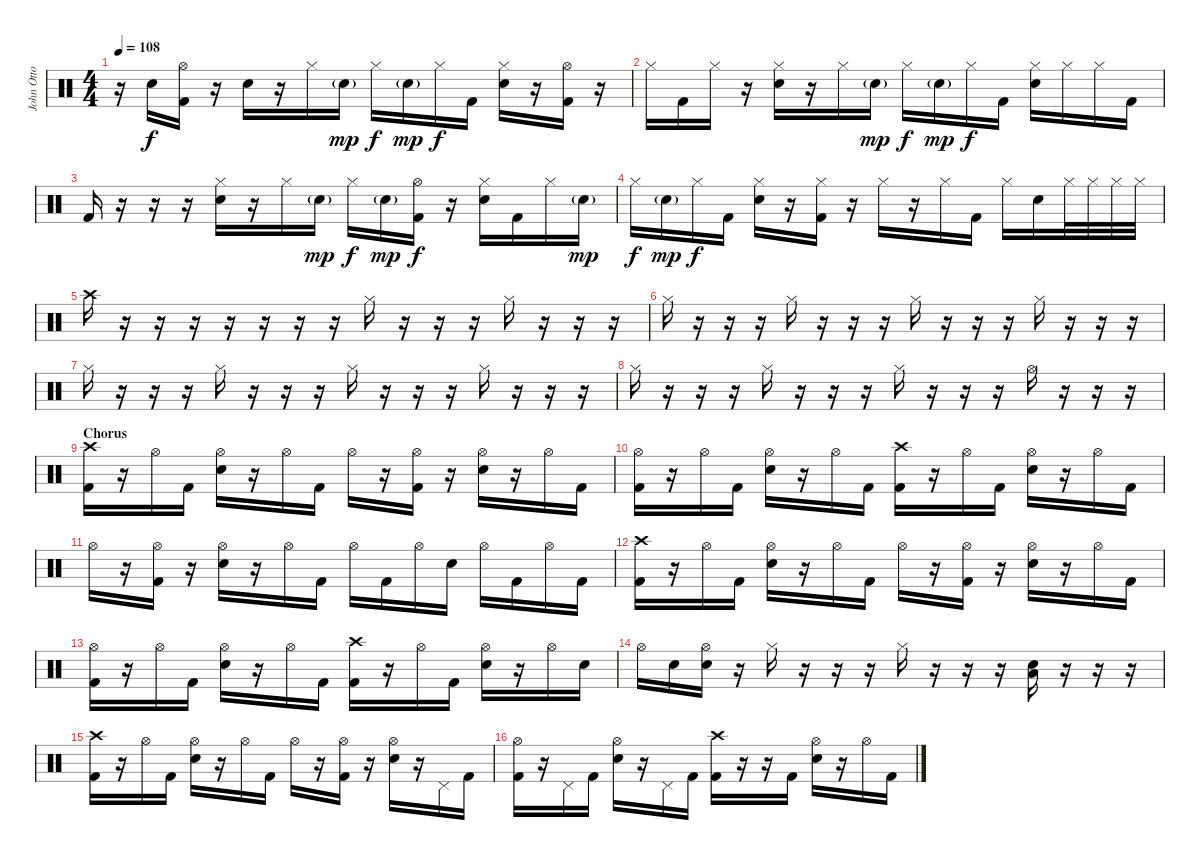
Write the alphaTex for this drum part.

\track ("John Otto - Drums" "John Otto ") {instrument percussion}
\staff {score}
\articulation defaults
\ts (4 4)
\tempo 108
\clef neutral
\ks c
r.16{dy f} "Snare (hit) 2".16 ("Hi-Hat (open)" "Kick (hit) 2").16 r.16 "Snare (hit) 2".16 r.16 "Hi-Hat (closed)".16 "Snare (hit) 2"{g}.16{dy mp} "Hi-Hat (closed)".16{dy f} "Snare (hit) 2"{g}.16{dy mp} "Hi-Hat (closed)".16{dy f} "Kick (hit) 2".16 ("Hi-Hat (closed)" "Snare (hit) 2").16 r.16 ("Hi-Hat (open)" "Kick (hit) 2").16 r.16 |
"Hi-Hat (closed)".16 "Kick (hit) 2".16 "Hi-Hat (closed)".16 r.16 ("Hi-Hat (closed)" "Snare (hit) 2").16 r.16 "Hi-Hat (closed)".16 "Snare (hit) 2"{g}.16{dy mp} "Hi-Hat (closed)".16{dy f} "Snare (hit) 2"{g}.16{dy mp} "Hi-Hat (closed)".16{dy f} "Kick (hit) 2".16 ("Hi-Hat (closed)" "Snare (hit) 2").16 "Hi-Hat (closed)".16 "Hi-Hat (closed)".16 "Kick (hit) 2".16 |
"Kick (hit) 2".16 r.16 r.16 r.16 ("Hi-Hat (closed)" "Snare (hit) 2").16 r.16 "Hi-Hat (closed)".16 "Snare (hit) 2"{g}.16{dy mp} "Hi-Hat (closed)".16{dy f} "Snare (hit) 2"{g}.16{dy mp} ("Hi-Hat (open)" "Kick (hit) 2").16{dy f} r.16 ("Hi-Hat (closed)" "Snare (hit) 2").16 "Kick (hit) 2".16 "Hi-Hat (closed)".16 "Snare (hit) 2"{g}.16{dy mp} |
"Hi-Hat (closed)".16{dy f} "Snare (hit) 2"{g}.16{dy mp} "Hi-Hat (closed)".16{dy f} "Kick (hit) 2".16 ("Hi-Hat (closed)" "Snare (hit) 2").16 r.16 ("Hi-Hat (closed)" "Kick (hit) 2").16 r.16 "Hi-Hat (closed)".16 r.16 "Hi-Hat (closed)".16 "Kick (hit) 2".16 "Hi-Hat (closed)".16 "Snare (hit) 2".16 "Hi-Hat (closed)".32 "Hi-Hat (closed)".32 "Hi-Hat (closed)".32 "Hi-Hat (closed)".32 |
"Crash high (hit)".16 r.16 r.16 r.16 r.16 r.16 r.16 r.16 "Hi-Hat (closed)".16 r.16 r.16 r.16 "Hi-Hat (closed)".16 r.16 r.16 r.16 |
"Hi-Hat (closed)".16 r.16 r.16 r.16 "Hi-Hat (closed)".16 r.16 r.16 r.16 "Hi-Hat (closed)".16 r.16 r.16 r.16 "Hi-Hat (closed)".16 r.16 r.16 r.16 |
"Hi-Hat (closed)".16 r.16 r.16 r.16 "Hi-Hat (closed)".16 r.16 r.16 r.16 "Hi-Hat (closed)".16 r.16 r.16 r.16 "Hi-Hat (closed)".16 r.16 r.16 r.16 |
"Hi-Hat (closed)".16 r.16 r.16 r.16 "Hi-Hat (closed)".16 r.16 r.16 r.16 "Hi-Hat (closed)".16 r.16 r.16 r.16 "Hi-Hat (open)".16 r.16 r.16 r.16 |
\section ("" "Chorus")
("Crash high (hit)" "Kick (hit) 2").16 r.16 "Hi-Hat (open)".16 "Kick (hit) 2".16 ("Hi-Hat (open)" "Snare (hit) 2").16 r.16 "Hi-Hat (open)".16 "Kick (hit) 2".16 "Hi-Hat (open)".16 r.16 ("Hi-Hat (open)" "Kick (hit) 2").16 r.16 ("Hi-Hat (open)" "Snare (hit) 2").16 r.16 "Hi-Hat (open)".16 "Kick (hit) 2".16 |
("Hi-Hat (open)" "Kick (hit) 2").16 r.16 "Hi-Hat (open)".16 "Kick (hit) 2".16 ("Hi-Hat (open)" "Snare (hit) 2").16 r.16 "Hi-Hat (open)".16 "Kick (hit) 2".16 ("Crash high (hit)" "Kick (hit) 2").16 r.16 "Hi-Hat (open)".16 "Kick (hit) 2".16 ("Hi-Hat (open)" "Snare (hit) 2").16 r.16 "Hi-Hat (open)".16 "Kick (hit) 2".16 |
"Hi-Hat (open)".16 r.16 ("Hi-Hat (open)" "Kick (hit) 2").16 r.16 ("Hi-Hat (open)" "Snare (hit) 2").16 r.16 "Hi-Hat (open)".16 "Kick (hit) 2".16 "Hi-Hat (open)".16 "Kick (hit) 2".16 "Hi-Hat (open)".16 "Snare (hit) 2".16 "Hi-Hat (open)".16 "Kick (hit) 2".16 "Hi-Hat (open)".16 "Kick (hit) 2".16 |
("Crash high (hit)" "Kick (hit) 2").16 r.16 "Hi-Hat (open)".16 "Kick (hit) 2".16 ("Hi-Hat (open)" "Snare (hit) 2").16 r.16 "Hi-Hat (open)".16 "Kick (hit) 2".16 "Hi-Hat (open)".16 r.16 ("Hi-Hat (open)" "Kick (hit) 2").16 r.16 ("Hi-Hat (open)" "Snare (hit) 2").16 r.16 "Hi-Hat (open)".16 "Kick (hit) 2".16 |
("Hi-Hat (open)" "Kick (hit) 2").16 r.16 "Hi-Hat (open)".16 "Kick (hit) 2".16 ("Hi-Hat (open)" "Snare (hit) 2").16 r.16 "Hi-Hat (open)".16 "Kick (hit) 2".16 ("Crash high (hit)" "Kick (hit) 2").16 r.16 "Hi-Hat (open)".16 "Kick (hit) 2".16 ("Hi-Hat (open)" "Snare (hit) 2").16 r.16 "Hi-Hat (open)".16 "Snare (hit) 2".16 |
"Hi-Hat (open)".16 "Snare (hit) 2".16 ("Hi-Hat (open)" "Snare (hit) 2").16 r.16 "Hi-Hat (closed)".16 r.16 r.16 r.16 "Hi-Hat (closed)".16 r.16 r.16 r.16 ("Low Floor Tom (hit)" "Snare (hit) 2").16 r.16 r.16 r.16 |
("Crash high (hit)" "Kick (hit) 2").16 r.16 "Hi-Hat (open)".16 "Kick (hit) 2".16 ("Hi-Hat (open)" "Snare (hit) 2").16 r.16 "Hi-Hat (open)".16 "Kick (hit) 2".16 "Hi-Hat (open)".16 r.16 ("Hi-Hat (open)" "Kick (hit) 2").16 r.16 ("Hi-Hat (open)" "Snare (hit) 2").16 r.16 "Pedal Hi-Hat (hit)".16 "Kick (hit) 2".16 |
("Hi-Hat (open)" "Kick (hit) 2").16 r.16 "Pedal Hi-Hat (hit)".16 "Kick (hit) 2".16 ("Hi-Hat (open)" "Snare (hit) 2").16 r.16 "Pedal Hi-Hat (hit)".16 "Kick (hit) 2".16 ("Crash high (hit)" "Kick (hit) 2").16 r.16 r.16 "Kick (hit) 2".16 ("Hi-Hat (open)" "Snare (hit) 2").16 r.16 "Hi-Hat (open)".16 "Kick (hit) 2".16
